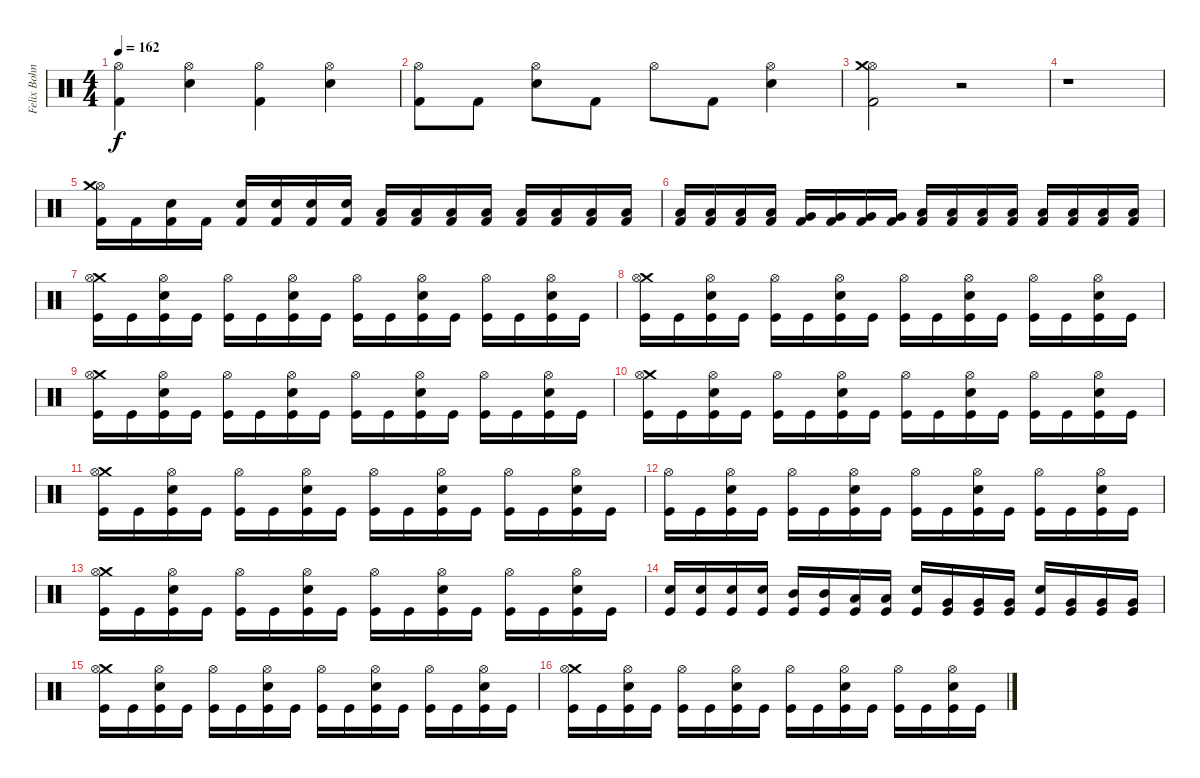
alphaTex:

\track ("Felix Bohnke" "Felix Bohn") {instrument percussion}
\staff {score}
\articulation defaults
\ts (4 4)
\tempo 162
\clef neutral
\ks c
("Kick (hit) 2" "Hi-Hat (open)").4{dy f} ("Electric Snare (hit)" "Hi-Hat (open)").4 ("Kick (hit) 2" "Hi-Hat (open)").4 ("Electric Snare (hit)" "Hi-Hat (open)").4 |
("Kick (hit) 2" "Hi-Hat (open)").8 "Kick (hit) 2".8 ("Electric Snare (hit)" "Hi-Hat (open)").8 "Kick (hit) 2".8 "Hi-Hat (open)".8 "Kick (hit) 2".8 ("Electric Snare (hit)" "Hi-Hat (open)").4 |
("Hi-Hat (open)" "Crash medium (hit)" "Kick (hit) 2").2 r.2 |
r.1 |
("Hi-Hat (open)" "Crash medium (hit)" "Kick (hit) 2").16 "Kick (hit) 2".16 ("Electric Snare (hit)" "Kick (hit) 2").16 "Kick (hit) 2".16 ("Electric Snare (hit)" "Kick (hit) 2").16 ("Electric Snare (hit)" "Kick (hit) 2").16 ("Electric Snare (hit)" "Kick (hit) 2").16 ("Electric Snare (hit)" "Kick (hit) 2").16 ("Low Tom (hit)" "Kick (hit) 2").16 ("Low Tom (hit)" "Kick (hit) 2").16 ("Low Tom (hit)" "Kick (hit) 2").16 ("Low Tom (hit)" "Kick (hit) 2").16 ("Low Tom (hit)" "Kick (hit) 2").16 ("Low Tom (hit)" "Kick (hit) 2").16 ("Low Tom (hit)" "Kick (hit) 2").16 ("Low Tom (hit)" "Kick (hit) 2").16 |
("Low Tom (hit)" "Kick (hit) 2").16 ("Low Tom (hit)" "Kick (hit) 2").16 ("Low Tom (hit)" "Kick (hit) 2").16 ("Low Tom (hit)" "Kick (hit) 2").16 ("Very Low Tom (hit)" "Kick (hit) 2").16 ("Very Low Tom (hit)" "Kick (hit) 2").16 ("Very Low Tom (hit)" "Kick (hit) 2").16 ("Very Low Tom (hit)" "Kick (hit) 2").16 ("Low Floor Tom (hit)" "Kick (hit) 2").16 ("Low Floor Tom (hit)" "Kick (hit) 2").16 ("Low Floor Tom (hit)" "Kick (hit) 2").16 ("Low Floor Tom (hit)" "Kick (hit) 2").16 ("Low Floor Tom (hit)" "Kick (hit) 2").16 ("Low Floor Tom (hit)" "Kick (hit) 2").16 ("Low Floor Tom (hit)" "Kick (hit) 2").16 ("Low Floor Tom (hit)" "Kick (hit) 2").16 |
("Crash medium (hit)" "Hi-Hat (open)" "Kick (hit)").16 "Kick (hit)".16 ("Electric Snare (hit)" "Hi-Hat (open)" "Kick (hit)").16 "Kick (hit)".16 ("Hi-Hat (open)" "Kick (hit)").16 "Kick (hit)".16 ("Electric Snare (hit)" "Hi-Hat (open)" "Kick (hit)").16 "Kick (hit)".16 ("Hi-Hat (open)" "Kick (hit)").16 "Kick (hit)".16 ("Electric Snare (hit)" "Hi-Hat (open)" "Kick (hit)").16 "Kick (hit)".16 ("Hi-Hat (open)" "Kick (hit)").16 "Kick (hit)".16 ("Electric Snare (hit)" "Hi-Hat (open)" "Kick (hit)").16 "Kick (hit)".16 |
("Crash medium (hit)" "Hi-Hat (open)" "Kick (hit)").16 "Kick (hit)".16 ("Electric Snare (hit)" "Hi-Hat (open)" "Kick (hit)").16 "Kick (hit)".16 ("Hi-Hat (open)" "Kick (hit)").16 "Kick (hit)".16 ("Electric Snare (hit)" "Hi-Hat (open)" "Kick (hit)").16 "Kick (hit)".16 ("Hi-Hat (open)" "Kick (hit)").16 "Kick (hit)".16 ("Electric Snare (hit)" "Hi-Hat (open)" "Kick (hit)").16 "Kick (hit)".16 ("Hi-Hat (open)" "Kick (hit)").16 "Kick (hit)".16 ("Electric Snare (hit)" "Hi-Hat (open)" "Kick (hit)").16 "Kick (hit)".16 |
("Crash medium (hit)" "Hi-Hat (open)" "Kick (hit)").16 "Kick (hit)".16 ("Electric Snare (hit)" "Hi-Hat (open)" "Kick (hit)").16 "Kick (hit)".16 ("Hi-Hat (open)" "Kick (hit)").16 "Kick (hit)".16 ("Electric Snare (hit)" "Hi-Hat (open)" "Kick (hit)").16 "Kick (hit)".16 ("Hi-Hat (open)" "Kick (hit)").16 "Kick (hit)".16 ("Electric Snare (hit)" "Hi-Hat (open)" "Kick (hit)").16 "Kick (hit)".16 ("Hi-Hat (open)" "Kick (hit)").16 "Kick (hit)".16 ("Electric Snare (hit)" "Hi-Hat (open)" "Kick (hit)").16 "Kick (hit)".16 |
("Crash medium (hit)" "Hi-Hat (open)" "Kick (hit)").16 "Kick (hit)".16 ("Electric Snare (hit)" "Hi-Hat (open)" "Kick (hit)").16 "Kick (hit)".16 ("Hi-Hat (open)" "Kick (hit)").16 "Kick (hit)".16 ("Electric Snare (hit)" "Hi-Hat (open)" "Kick (hit)").16 "Kick (hit)".16 ("Hi-Hat (open)" "Kick (hit)").16 "Kick (hit)".16 ("Electric Snare (hit)" "Hi-Hat (open)" "Kick (hit)").16 "Kick (hit)".16 ("Hi-Hat (open)" "Kick (hit)").16 "Kick (hit)".16 ("Electric Snare (hit)" "Hi-Hat (open)" "Kick (hit)").16 "Kick (hit)".16 |
("Crash medium (hit)" "Hi-Hat (open)" "Kick (hit)").16 "Kick (hit)".16 ("Electric Snare (hit)" "Hi-Hat (open)" "Kick (hit)").16 "Kick (hit)".16 ("Hi-Hat (open)" "Kick (hit)").16 "Kick (hit)".16 ("Electric Snare (hit)" "Hi-Hat (open)" "Kick (hit)").16 "Kick (hit)".16 ("Hi-Hat (open)" "Kick (hit)").16 "Kick (hit)".16 ("Electric Snare (hit)" "Hi-Hat (open)" "Kick (hit)").16 "Kick (hit)".16 ("Hi-Hat (open)" "Kick (hit)").16 "Kick (hit)".16 ("Electric Snare (hit)" "Hi-Hat (open)" "Kick (hit)").16 "Kick (hit)".16 |
("Hi-Hat (open)" "Kick (hit)").16 "Kick (hit)".16 ("Electric Snare (hit)" "Hi-Hat (open)" "Kick (hit)").16 "Kick (hit)".16 ("Hi-Hat (open)" "Kick (hit)").16 "Kick (hit)".16 ("Electric Snare (hit)" "Hi-Hat (open)" "Kick (hit)").16 "Kick (hit)".16 ("Hi-Hat (open)" "Kick (hit)").16 "Kick (hit)".16 ("Electric Snare (hit)" "Hi-Hat (open)" "Kick (hit)").16 "Kick (hit)".16 ("Hi-Hat (open)" "Kick (hit)").16 "Kick (hit)".16 ("Electric Snare (hit)" "Hi-Hat (open)" "Kick (hit)").16 "Kick (hit)".16 |
("Crash medium (hit)" "Hi-Hat (open)" "Kick (hit)").16 "Kick (hit)".16 ("Electric Snare (hit)" "Hi-Hat (open)" "Kick (hit)").16 "Kick (hit)".16 ("Hi-Hat (open)" "Kick (hit)").16 "Kick (hit)".16 ("Electric Snare (hit)" "Hi-Hat (open)" "Kick (hit)").16 "Kick (hit)".16 ("Hi-Hat (open)" "Kick (hit)").16 "Kick (hit)".16 ("Electric Snare (hit)" "Hi-Hat (open)" "Kick (hit)").16 "Kick (hit)".16 ("Hi-Hat (open)" "Kick (hit)").16 "Kick (hit)".16 ("Electric Snare (hit)" "Hi-Hat (open)" "Kick (hit)").16 "Kick (hit)".16 |
("Electric Snare (hit)" "Kick (hit)").16 ("Electric Snare (hit)" "Kick (hit)").16 ("Electric Snare (hit)" "Kick (hit)").16 ("Electric Snare (hit)" "Kick (hit)").16 ("Mid Tom (hit)" "Kick (hit)").16 ("Mid Tom (hit)" "Kick (hit)").16 ("Low Tom (hit)" "Kick (hit)").16 ("Low Tom (hit)" "Kick (hit)").16 ("Electric Snare (hit)" "Kick (hit)").16 ("Very Low Tom (hit)" "Kick (hit)").16 ("Very Low Tom (hit)" "Kick (hit)").16 ("Very Low Tom (hit)" "Kick (hit)").16 ("Electric Snare (hit)" "Kick (hit)").16 ("Very Low Tom (hit)" "Kick (hit)").16 ("Very Low Tom (hit)" "Kick (hit)").16 ("Very Low Tom (hit)" "Kick (hit)").16 |
("Crash medium (hit)" "Hi-Hat (open)" "Kick (hit)").16 "Kick (hit)".16 ("Electric Snare (hit)" "Hi-Hat (open)" "Kick (hit)").16 "Kick (hit)".16 ("Hi-Hat (open)" "Kick (hit)").16 "Kick (hit)".16 ("Electric Snare (hit)" "Hi-Hat (open)" "Kick (hit)").16 "Kick (hit)".16 ("Hi-Hat (open)" "Kick (hit)").16 "Kick (hit)".16 ("Electric Snare (hit)" "Hi-Hat (open)" "Kick (hit)").16 "Kick (hit)".16 ("Hi-Hat (open)" "Kick (hit)").16 "Kick (hit)".16 ("Electric Snare (hit)" "Hi-Hat (open)" "Kick (hit)").16 "Kick (hit)".16 |
("Crash medium (hit)" "Hi-Hat (open)" "Kick (hit)").16 "Kick (hit)".16 ("Electric Snare (hit)" "Hi-Hat (open)" "Kick (hit)").16 "Kick (hit)".16 ("Hi-Hat (open)" "Kick (hit)").16 "Kick (hit)".16 ("Electric Snare (hit)" "Hi-Hat (open)" "Kick (hit)").16 "Kick (hit)".16 ("Hi-Hat (open)" "Kick (hit)").16 "Kick (hit)".16 ("Electric Snare (hit)" "Hi-Hat (open)" "Kick (hit)").16 "Kick (hit)".16 ("Hi-Hat (open)" "Kick (hit)").16 "Kick (hit)".16 ("Electric Snare (hit)" "Hi-Hat (open)" "Kick (hit)").16 "Kick (hit)".16
